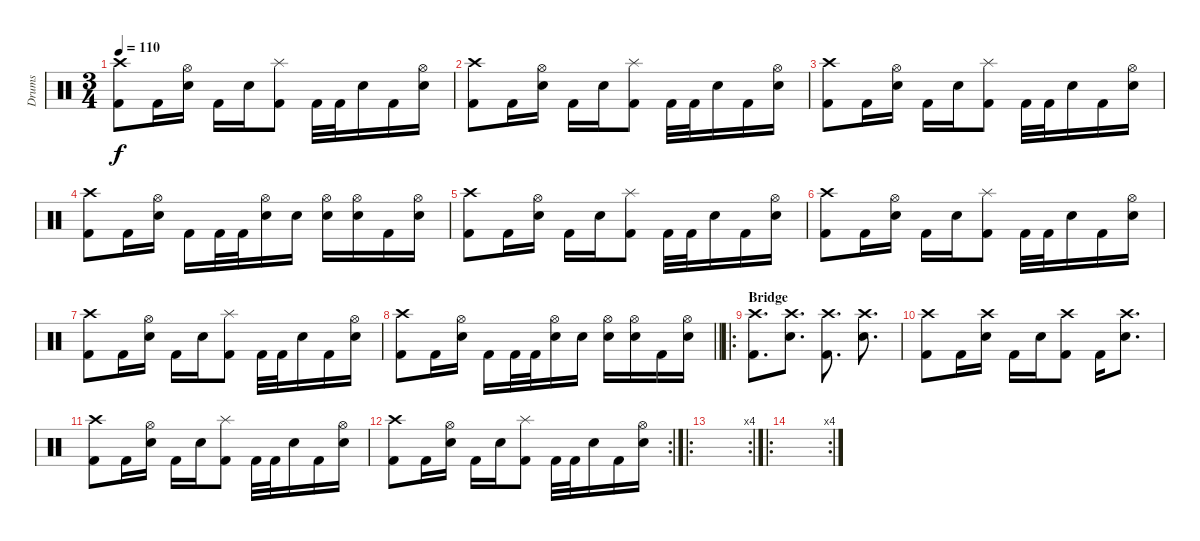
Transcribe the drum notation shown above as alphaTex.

\track ("Drums" "Drums") {instrument percussion}
\staff {score}
\articulation defaults
\ts (3 4)
\tempo 110
\clef neutral
\ks c
("Crash high (hit)" "Kick (hit) 2").8{dy f} "Kick (hit) 2".16 ("Hi-Hat (open)" "Electric Snare (hit)").16 "Kick (hit) 2".16 "Electric Snare (hit)".16 ("Splash (hit)" "Kick (hit) 2").8 "Kick (hit) 2".32 "Kick (hit) 2".32 "Electric Snare (hit)".16 "Kick (hit) 2".16 ("Hi-Hat (open)" "Electric Snare (hit)").16 |
("Crash high (hit)" "Kick (hit) 2").8 "Kick (hit) 2".16 ("Hi-Hat (open)" "Electric Snare (hit)").16 "Kick (hit) 2".16 "Electric Snare (hit)".16 ("Splash (hit)" "Kick (hit) 2").8 "Kick (hit) 2".32 "Kick (hit) 2".32 "Electric Snare (hit)".16 "Kick (hit) 2".16 ("Hi-Hat (open)" "Electric Snare (hit)").16 |
("Crash high (hit)" "Kick (hit) 2").8 "Kick (hit) 2".16 ("Hi-Hat (open)" "Electric Snare (hit)").16 "Kick (hit) 2".16 "Electric Snare (hit)".16 ("Splash (hit)" "Kick (hit) 2").8 "Kick (hit) 2".32 "Kick (hit) 2".32 "Electric Snare (hit)".16 "Kick (hit) 2".16 ("Hi-Hat (open)" "Electric Snare (hit)").16 |
("Crash high (hit)" "Kick (hit) 2").8 "Kick (hit) 2".16 ("Hi-Hat (open)" "Electric Snare (hit)").16 "Kick (hit) 2".16 "Kick (hit) 2".32 "Kick (hit) 2".32 ("Hi-Hat (open)" "Electric Snare (hit)").16 "Electric Snare (hit)".16 ("Hi-Hat (open)" "Electric Snare (hit)").16 ("Hi-Hat (open)" "Electric Snare (hit)").16 "Kick (hit) 2".16 ("Hi-Hat (open)" "Electric Snare (hit)").16 |
("Crash high (hit)" "Kick (hit) 2").8 "Kick (hit) 2".16 ("Hi-Hat (open)" "Electric Snare (hit)").16 "Kick (hit) 2".16 "Electric Snare (hit)".16 ("Splash (hit)" "Kick (hit) 2").8 "Kick (hit) 2".32 "Kick (hit) 2".32 "Electric Snare (hit)".16 "Kick (hit) 2".16 ("Hi-Hat (open)" "Electric Snare (hit)").16 |
("Crash high (hit)" "Kick (hit) 2").8 "Kick (hit) 2".16 ("Hi-Hat (open)" "Electric Snare (hit)").16 "Kick (hit) 2".16 "Electric Snare (hit)".16 ("Splash (hit)" "Kick (hit) 2").8 "Kick (hit) 2".32 "Kick (hit) 2".32 "Electric Snare (hit)".16 "Kick (hit) 2".16 ("Hi-Hat (open)" "Electric Snare (hit)").16 |
("Crash high (hit)" "Kick (hit) 2").8 "Kick (hit) 2".16 ("Hi-Hat (open)" "Electric Snare (hit)").16 "Kick (hit) 2".16 "Electric Snare (hit)".16 ("Splash (hit)" "Kick (hit) 2").8 "Kick (hit) 2".32 "Kick (hit) 2".32 "Electric Snare (hit)".16 "Kick (hit) 2".16 ("Hi-Hat (open)" "Electric Snare (hit)").16 |
\barLineRight lightlight
("Crash high (hit)" "Kick (hit) 2").8 "Kick (hit) 2".16 ("Hi-Hat (open)" "Electric Snare (hit)").16 "Kick (hit) 2".16 "Kick (hit) 2".32 "Kick (hit) 2".32 ("Hi-Hat (open)" "Electric Snare (hit)").16 "Electric Snare (hit)".16 ("Hi-Hat (open)" "Electric Snare (hit)").16 ("Hi-Hat (open)" "Electric Snare (hit)").16 "Kick (hit) 2".16 ("Hi-Hat (open)" "Electric Snare (hit)").16 |
\ro
\section ("" "Bridge")
("Crash high (hit)" "Kick (hit) 2").8{d} ("Crash high (hit)" "Electric Snare (hit)").8{d} ("Crash high (hit)" "Kick (hit) 2").8{d} ("Crash high (hit)" "Electric Snare (hit)").8{d} |
("Crash high (hit)" "Kick (hit) 2").8 "Kick (hit) 2".16 ("Crash high (hit)" "Electric Snare (hit)").16 "Kick (hit) 2".16 "Electric Snare (hit)".16 ("Crash high (hit)" "Kick (hit) 2").8 "Kick (hit) 2".16 ("Crash high (hit)" "Electric Snare (hit)").8{d} |
("Crash high (hit)" "Kick (hit) 2").8 "Kick (hit) 2".16 ("Hi-Hat (open)" "Electric Snare (hit)").16 "Kick (hit) 2".16 "Electric Snare (hit)".16 ("Splash (hit)" "Kick (hit) 2").8 "Kick (hit) 2".32 "Kick (hit) 2".32 "Electric Snare (hit)".16 "Kick (hit) 2".16 ("Hi-Hat (open)" "Electric Snare (hit)").16 |
\rc 2
("Crash high (hit)" "Kick (hit) 2").8 "Kick (hit) 2".16 ("Hi-Hat (open)" "Electric Snare (hit)").16 "Kick (hit) 2".16 "Electric Snare (hit)".16 ("Splash (hit)" "Kick (hit) 2").8 "Kick (hit) 2".32 "Kick (hit) 2".32 "Electric Snare (hit)".16 "Kick (hit) 2".16 ("Hi-Hat (open)" "Electric Snare (hit)").16 |
\ro
\rc 4
|
\ro
\rc 4
